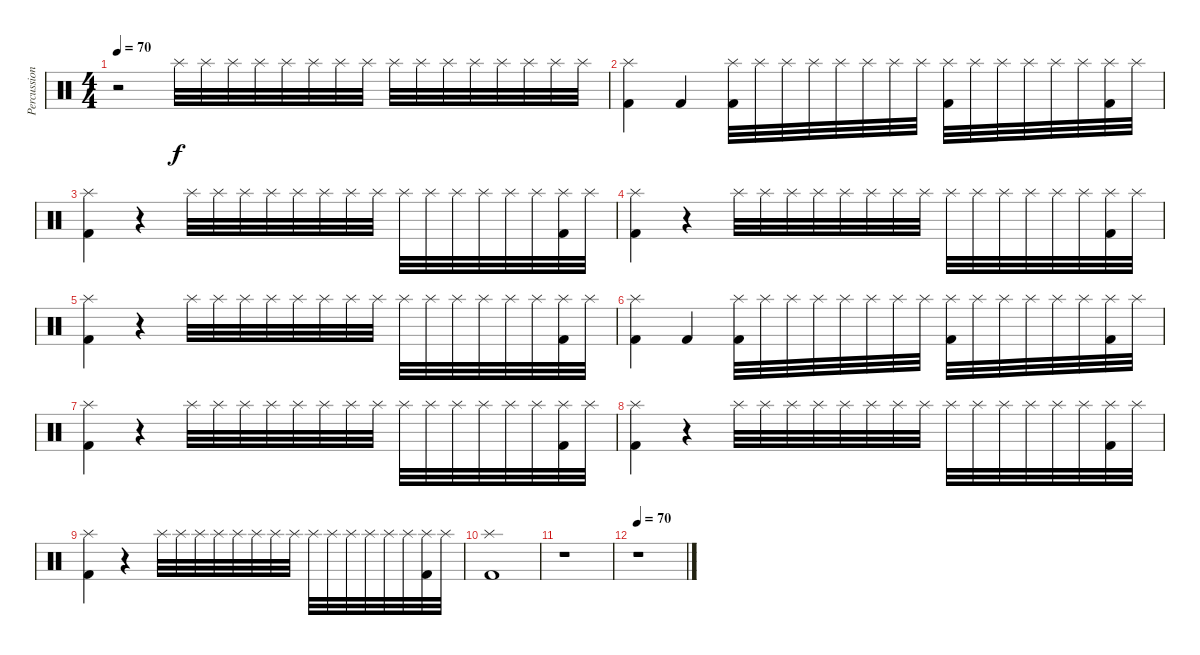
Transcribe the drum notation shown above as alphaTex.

\track ("Percussion" "Percussion") {instrument percussion}
\staff {score}
\articulation defaults
\ts (4 4)
\tempo 70
\clef neutral
\ks c
r.2{dy f volume 0} "Splash (hit)".32{volume 16} "Splash (hit)".32 "Splash (hit)".32 "Splash (hit)".32 "Splash (hit)".32 "Splash (hit)".32 "Splash (hit)".32 "Splash (hit)".32 "Splash (hit)".32 "Splash (hit)".32 "Splash (hit)".32 "Splash (hit)".32 "Splash (hit)".32 "Splash (hit)".32 "Splash (hit)".32 "Splash (hit)".32 |
("Splash (hit)" "Kick (hit) 2").4 "Kick (hit) 2".4{volume 0} ("Splash (hit)" "Kick (hit) 2").32{volume 16} "Splash (hit)".32 "Splash (hit)".32 "Splash (hit)".32 "Splash (hit)".32 "Splash (hit)".32 "Splash (hit)".32 "Splash (hit)".32 ("Splash (hit)" "Kick (hit) 2").32 "Splash (hit)".32 "Splash (hit)".32 "Splash (hit)".32 "Splash (hit)".32 "Splash (hit)".32 ("Splash (hit)" "Kick (hit) 2").32 "Splash (hit)".32 |
("Splash (hit)" "Kick (hit) 2").4 r.4{volume 0} "Splash (hit)".32{volume 16} "Splash (hit)".32 "Splash (hit)".32 "Splash (hit)".32 "Splash (hit)".32 "Splash (hit)".32 "Splash (hit)".32 "Splash (hit)".32 "Splash (hit)".32 "Splash (hit)".32 "Splash (hit)".32 "Splash (hit)".32 "Splash (hit)".32 "Splash (hit)".32 ("Splash (hit)" "Kick (hit) 2").32 "Splash (hit)".32 |
("Splash (hit)" "Kick (hit) 2").4 r.4{volume 0} "Splash (hit)".32{volume 16} "Splash (hit)".32 "Splash (hit)".32 "Splash (hit)".32 "Splash (hit)".32 "Splash (hit)".32 "Splash (hit)".32 "Splash (hit)".32 "Splash (hit)".32 "Splash (hit)".32 "Splash (hit)".32 "Splash (hit)".32 "Splash (hit)".32 "Splash (hit)".32 ("Splash (hit)" "Kick (hit) 2").32 "Splash (hit)".32 |
("Splash (hit)" "Kick (hit) 2").4 r.4{volume 0} "Splash (hit)".32{volume 16} "Splash (hit)".32 "Splash (hit)".32 "Splash (hit)".32 "Splash (hit)".32 "Splash (hit)".32 "Splash (hit)".32 "Splash (hit)".32 "Splash (hit)".32 "Splash (hit)".32 "Splash (hit)".32 "Splash (hit)".32 "Splash (hit)".32 "Splash (hit)".32 ("Splash (hit)" "Kick (hit) 2").32 "Splash (hit)".32 |
("Splash (hit)" "Kick (hit) 2").4 "Kick (hit) 2".4{volume 0} ("Splash (hit)" "Kick (hit) 2").32{volume 16} "Splash (hit)".32 "Splash (hit)".32 "Splash (hit)".32 "Splash (hit)".32 "Splash (hit)".32 "Splash (hit)".32 "Splash (hit)".32 ("Splash (hit)" "Kick (hit) 2").32 "Splash (hit)".32 "Splash (hit)".32 "Splash (hit)".32 "Splash (hit)".32 "Splash (hit)".32 ("Splash (hit)" "Kick (hit) 2").32 "Splash (hit)".32 |
("Splash (hit)" "Kick (hit) 2").4 r.4{volume 0} "Splash (hit)".32{volume 16} "Splash (hit)".32 "Splash (hit)".32 "Splash (hit)".32 "Splash (hit)".32 "Splash (hit)".32 "Splash (hit)".32 "Splash (hit)".32 "Splash (hit)".32 "Splash (hit)".32 "Splash (hit)".32 "Splash (hit)".32 "Splash (hit)".32 "Splash (hit)".32 ("Splash (hit)" "Kick (hit) 2").32 "Splash (hit)".32 |
("Splash (hit)" "Kick (hit) 2").4 r.4{volume 0} "Splash (hit)".32{volume 16} "Splash (hit)".32 "Splash (hit)".32 "Splash (hit)".32 "Splash (hit)".32 "Splash (hit)".32 "Splash (hit)".32 "Splash (hit)".32 "Splash (hit)".32 "Splash (hit)".32 "Splash (hit)".32 "Splash (hit)".32 "Splash (hit)".32 "Splash (hit)".32 ("Splash (hit)" "Kick (hit) 2").32 "Splash (hit)".32 |
("Splash (hit)" "Kick (hit) 2").4 r.4{volume 0} "Splash (hit)".32{volume 16} "Splash (hit)".32 "Splash (hit)".32 "Splash (hit)".32 "Splash (hit)".32 "Splash (hit)".32 "Splash (hit)".32 "Splash (hit)".32 "Splash (hit)".32 "Splash (hit)".32 "Splash (hit)".32 "Splash (hit)".32 "Splash (hit)".32 "Splash (hit)".32 ("Splash (hit)" "Kick (hit) 2").32 "Splash (hit)".32 |
("Splash (hit)" "Kick (hit) 2").1 |
r.1 |
\tempo 70
r.1
